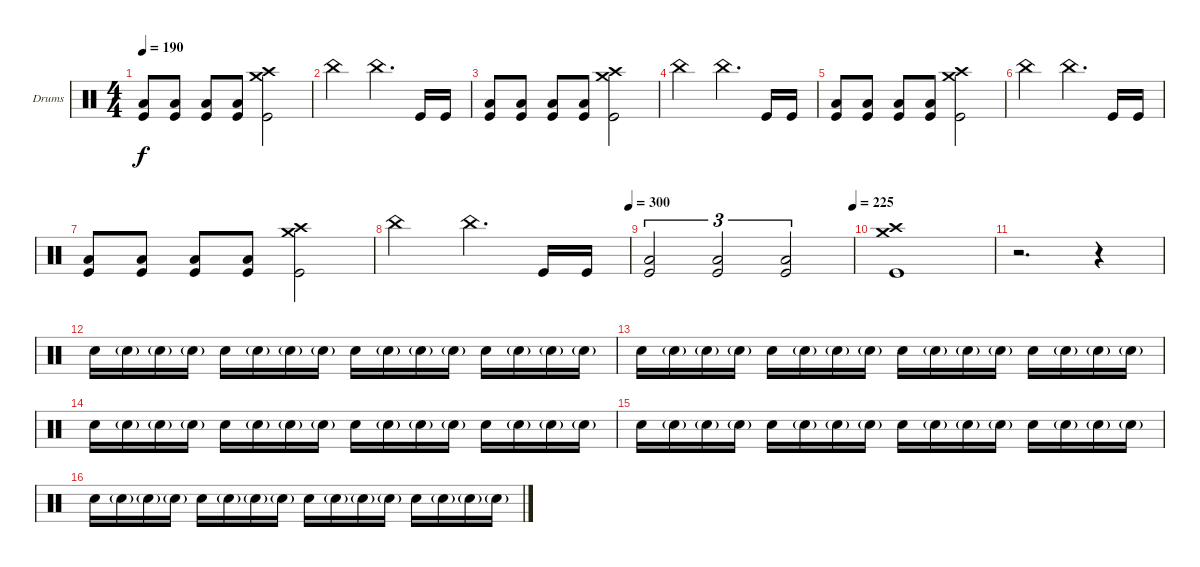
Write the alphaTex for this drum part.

\bracketExtendMode groupsimilarinstruments
\firstSystemTrackNameOrientation horizontal
\otherSystemsTrackNameOrientation horizontal
\track ("Drumkit" "Drums") {instrument percussion}
\staff {score}
\articulation defaults
\ts (4 4)
\tempo 190
\clef neutral
\ks c
("Low Tom (hit)" "Kick (hit)").8{dy f} ("Low Tom (hit)" "Kick (hit)").8 ("Low Tom (hit)" "Kick (hit)").8 ("Low Tom (hit)" "Kick (hit)").8 ("Crash high (hit)" "Crash medium (hit)" "Kick (hit)").2 |
"China (hit)".2 "China (hit)".4{d} "Kick (hit)".16 "Kick (hit)".16 |
("Low Tom (hit)" "Kick (hit)").8 ("Low Tom (hit)" "Kick (hit)").8 ("Low Tom (hit)" "Kick (hit)").8 ("Low Tom (hit)" "Kick (hit)").8 ("Crash high (hit)" "Crash medium (hit)" "Kick (hit)").2 |
"China (hit)".2 "China (hit)".4{d} "Kick (hit)".16 "Kick (hit)".16 |
("Low Tom (hit)" "Kick (hit)").8 ("Low Tom (hit)" "Kick (hit)").8 ("Low Tom (hit)" "Kick (hit)").8 ("Low Tom (hit)" "Kick (hit)").8 ("Crash high (hit)" "Crash medium (hit)" "Kick (hit)").2 |
"China (hit)".2 "China (hit)".4{d} "Kick (hit)".16 "Kick (hit)".16 |
("Low Tom (hit)" "Kick (hit)").8 ("Low Tom (hit)" "Kick (hit)").8 ("Low Tom (hit)" "Kick (hit)").8 ("Low Tom (hit)" "Kick (hit)").8 ("Crash high (hit)" "Crash medium (hit)" "Kick (hit)").2 |
\tempo (300 1)
"China (hit)".2 "China (hit)".4{d} "Kick (hit)".16 "Kick (hit)".16 |
\tempo (225 1)
("Low Tom (hit)" "Kick (hit)").2{tu (3 2)} ("Low Tom (hit)" "Kick (hit)").2{tu (3 2)} ("Low Tom (hit)" "Kick (hit)").2{tu (3 2)} |
("Crash high (hit)" "Crash medium (hit)" "Kick (hit)").1 |
r.2{d} r.4 |
"Snare (hit) 2".16 "Snare (hit) 2"{g}.16 "Snare (hit) 2"{g}.16 "Snare (hit) 2"{g}.16 "Snare (hit) 2".16 "Snare (hit) 2"{g}.16 "Snare (hit) 2"{g}.16 "Snare (hit) 2"{g}.16 "Snare (hit) 2".16 "Snare (hit) 2"{g}.16 "Snare (hit) 2"{g}.16 "Snare (hit) 2"{g}.16 "Snare (hit) 2".16 "Snare (hit) 2"{g}.16 "Snare (hit) 2"{g}.16 "Snare (hit) 2"{g}.16 |
"Snare (hit) 2".16 "Snare (hit) 2"{g}.16 "Snare (hit) 2"{g}.16 "Snare (hit) 2"{g}.16 "Snare (hit) 2".16 "Snare (hit) 2"{g}.16 "Snare (hit) 2"{g}.16 "Snare (hit) 2"{g}.16 "Snare (hit) 2".16 "Snare (hit) 2"{g}.16 "Snare (hit) 2"{g}.16 "Snare (hit) 2"{g}.16 "Snare (hit) 2".16 "Snare (hit) 2"{g}.16 "Snare (hit) 2"{g}.16 "Snare (hit) 2"{g}.16 |
"Snare (hit) 2".16 "Snare (hit) 2"{g}.16 "Snare (hit) 2"{g}.16 "Snare (hit) 2"{g}.16 "Snare (hit) 2".16 "Snare (hit) 2"{g}.16 "Snare (hit) 2"{g}.16 "Snare (hit) 2"{g}.16 "Snare (hit) 2".16 "Snare (hit) 2"{g}.16 "Snare (hit) 2"{g}.16 "Snare (hit) 2"{g}.16 "Snare (hit) 2".16 "Snare (hit) 2"{g}.16 "Snare (hit) 2"{g}.16 "Snare (hit) 2"{g}.16 |
"Snare (hit) 2".16 "Snare (hit) 2"{g}.16 "Snare (hit) 2"{g}.16 "Snare (hit) 2"{g}.16 "Snare (hit) 2".16 "Snare (hit) 2"{g}.16 "Snare (hit) 2"{g}.16 "Snare (hit) 2"{g}.16 "Snare (hit) 2".16 "Snare (hit) 2"{g}.16 "Snare (hit) 2"{g}.16 "Snare (hit) 2"{g}.16 "Snare (hit) 2".16 "Snare (hit) 2"{g}.16 "Snare (hit) 2"{g}.16 "Snare (hit) 2"{g}.16 |
"Snare (hit) 2".16 "Snare (hit) 2"{g}.16 "Snare (hit) 2"{g}.16 "Snare (hit) 2"{g}.16 "Snare (hit) 2".16 "Snare (hit) 2"{g}.16 "Snare (hit) 2"{g}.16 "Snare (hit) 2"{g}.16 "Snare (hit) 2".16 "Snare (hit) 2"{g}.16 "Snare (hit) 2"{g}.16 "Snare (hit) 2"{g}.16 "Snare (hit) 2".16 "Snare (hit) 2"{g}.16 "Snare (hit) 2"{g}.16 "Snare (hit) 2"{g}.16
